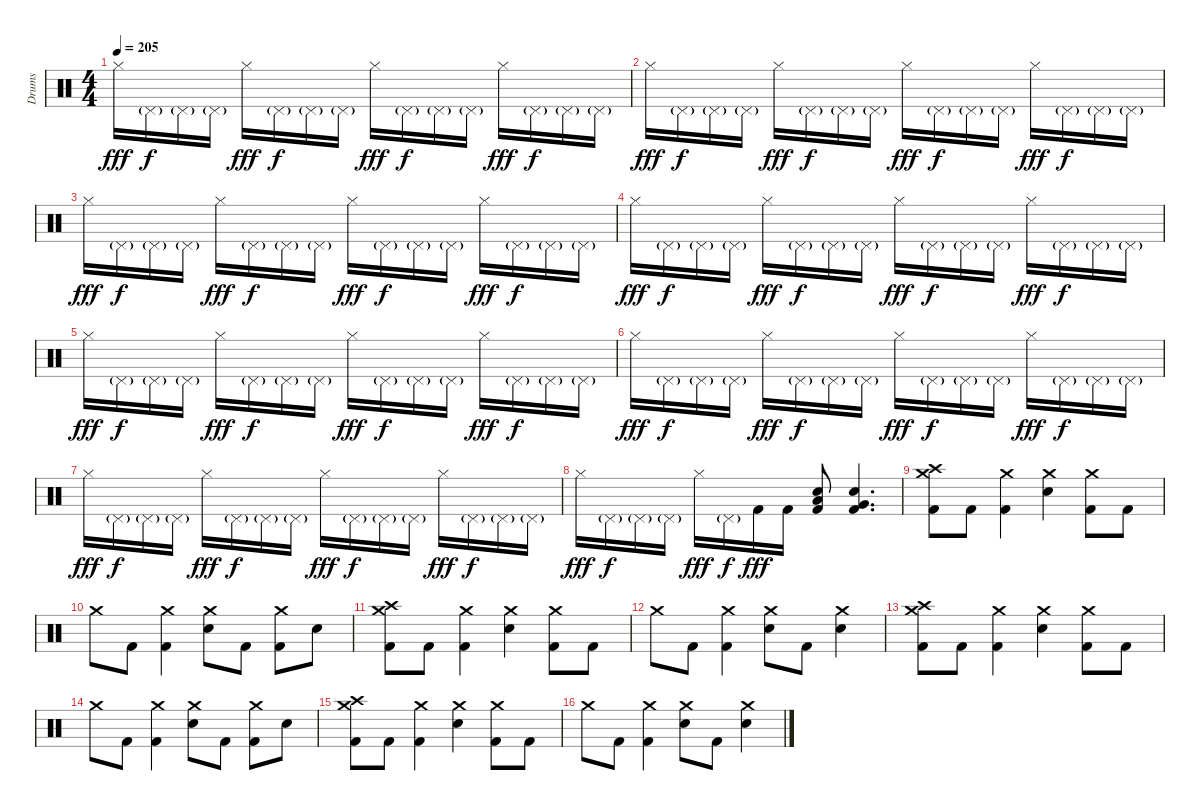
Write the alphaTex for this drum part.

\track ("Drums" "Drums") {instrument percussion}
\staff {score}
\articulation defaults
\ts (4 4)
\tempo 205
\clef neutral
\ks c "Hi-Hat (closed)".16{dy fff} "Pedal Hi-Hat (hit)"{g}.16{dy f} "Pedal Hi-Hat (hit)"{g}.16 "Pedal Hi-Hat (hit)"{g}.16 "Hi-Hat (closed)".16{dy fff} "Pedal Hi-Hat (hit)"{g}.16{dy f} "Pedal Hi-Hat (hit)"{g}.16 "Pedal Hi-Hat (hit)"{g}.16 "Hi-Hat (closed)".16{dy fff} "Pedal Hi-Hat (hit)"{g}.16{dy f} "Pedal Hi-Hat (hit)"{g}.16 "Pedal Hi-Hat (hit)"{g}.16 "Hi-Hat (closed)".16{dy fff} "Pedal Hi-Hat (hit)"{g}.16{dy f} "Pedal Hi-Hat (hit)"{g}.16 "Pedal Hi-Hat (hit)"{g}.16
|
"Hi-Hat (closed)".16{dy fff} "Pedal Hi-Hat (hit)"{g}.16{dy f} "Pedal Hi-Hat (hit)"{g}.16 "Pedal Hi-Hat (hit)"{g}.16 "Hi-Hat (closed)".16{dy fff} "Pedal Hi-Hat (hit)"{g}.16{dy f} "Pedal Hi-Hat (hit)"{g}.16 "Pedal Hi-Hat (hit)"{g}.16 "Hi-Hat (closed)".16{dy fff} "Pedal Hi-Hat (hit)"{g}.16{dy f} "Pedal Hi-Hat (hit)"{g}.16 "Pedal Hi-Hat (hit)"{g}.16 "Hi-Hat (closed)".16{dy fff} "Pedal Hi-Hat (hit)"{g}.16{dy f} "Pedal Hi-Hat (hit)"{g}.16 "Pedal Hi-Hat (hit)"{g}.16 |
"Hi-Hat (closed)".16{dy fff} "Pedal Hi-Hat (hit)"{g}.16{dy f} "Pedal Hi-Hat (hit)"{g}.16 "Pedal Hi-Hat (hit)"{g}.16 "Hi-Hat (closed)".16{dy fff} "Pedal Hi-Hat (hit)"{g}.16{dy f} "Pedal Hi-Hat (hit)"{g}.16 "Pedal Hi-Hat (hit)"{g}.16 "Hi-Hat (closed)".16{dy fff} "Pedal Hi-Hat (hit)"{g}.16{dy f} "Pedal Hi-Hat (hit)"{g}.16 "Pedal Hi-Hat (hit)"{g}.16 "Hi-Hat (closed)".16{dy fff} "Pedal Hi-Hat (hit)"{g}.16{dy f} "Pedal Hi-Hat (hit)"{g}.16 "Pedal Hi-Hat (hit)"{g}.16 |
"Hi-Hat (closed)".16{dy fff} "Pedal Hi-Hat (hit)"{g}.16{dy f} "Pedal Hi-Hat (hit)"{g}.16 "Pedal Hi-Hat (hit)"{g}.16 "Hi-Hat (closed)".16{dy fff} "Pedal Hi-Hat (hit)"{g}.16{dy f} "Pedal Hi-Hat (hit)"{g}.16 "Pedal Hi-Hat (hit)"{g}.16 "Hi-Hat (closed)".16{dy fff} "Pedal Hi-Hat (hit)"{g}.16{dy f} "Pedal Hi-Hat (hit)"{g}.16 "Pedal Hi-Hat (hit)"{g}.16 "Hi-Hat (closed)".16{dy fff} "Pedal Hi-Hat (hit)"{g}.16{dy f} "Pedal Hi-Hat (hit)"{g}.16 "Pedal Hi-Hat (hit)"{g}.16 |
"Hi-Hat (closed)".16{dy fff} "Pedal Hi-Hat (hit)"{g}.16{dy f} "Pedal Hi-Hat (hit)"{g}.16 "Pedal Hi-Hat (hit)"{g}.16 "Hi-Hat (closed)".16{dy fff} "Pedal Hi-Hat (hit)"{g}.16{dy f} "Pedal Hi-Hat (hit)"{g}.16 "Pedal Hi-Hat (hit)"{g}.16 "Hi-Hat (closed)".16{dy fff} "Pedal Hi-Hat (hit)"{g}.16{dy f} "Pedal Hi-Hat (hit)"{g}.16 "Pedal Hi-Hat (hit)"{g}.16 "Hi-Hat (closed)".16{dy fff} "Pedal Hi-Hat (hit)"{g}.16{dy f} "Pedal Hi-Hat (hit)"{g}.16 "Pedal Hi-Hat (hit)"{g}.16 |
"Hi-Hat (closed)".16{dy fff} "Pedal Hi-Hat (hit)"{g}.16{dy f} "Pedal Hi-Hat (hit)"{g}.16 "Pedal Hi-Hat (hit)"{g}.16 "Hi-Hat (closed)".16{dy fff} "Pedal Hi-Hat (hit)"{g}.16{dy f} "Pedal Hi-Hat (hit)"{g}.16 "Pedal Hi-Hat (hit)"{g}.16 "Hi-Hat (closed)".16{dy fff} "Pedal Hi-Hat (hit)"{g}.16{dy f} "Pedal Hi-Hat (hit)"{g}.16 "Pedal Hi-Hat (hit)"{g}.16 "Hi-Hat (closed)".16{dy fff} "Pedal Hi-Hat (hit)"{g}.16{dy f} "Pedal Hi-Hat (hit)"{g}.16 "Pedal Hi-Hat (hit)"{g}.16 |
"Hi-Hat (closed)".16{dy fff} "Pedal Hi-Hat (hit)"{g}.16{dy f} "Pedal Hi-Hat (hit)"{g}.16 "Pedal Hi-Hat (hit)"{g}.16 "Hi-Hat (closed)".16{dy fff} "Pedal Hi-Hat (hit)"{g}.16{dy f} "Pedal Hi-Hat (hit)"{g}.16 "Pedal Hi-Hat (hit)"{g}.16 "Hi-Hat (closed)".16{dy fff} "Pedal Hi-Hat (hit)"{g}.16{dy f} "Pedal Hi-Hat (hit)"{g}.16 "Pedal Hi-Hat (hit)"{g}.16 "Hi-Hat (closed)".16{dy fff} "Pedal Hi-Hat (hit)"{g}.16{dy f} "Pedal Hi-Hat (hit)"{g}.16 "Pedal Hi-Hat (hit)"{g}.16 |
"Hi-Hat (closed)".16{dy fff} "Pedal Hi-Hat (hit)"{g}.16{dy f} "Pedal Hi-Hat (hit)"{g}.16 "Pedal Hi-Hat (hit)"{g}.16 "Hi-Hat (closed)".16{dy fff} "Pedal Hi-Hat (hit)"{g}.16{dy f} "Kick (hit) 2".16{dy fff} "Kick (hit) 2".16 ("Low Tom (hit)" "Electric Snare (hit)" "Kick (hit) 2").8 ("Very Low Tom (hit)" "Electric Snare (hit)" "Kick (hit) 2").4{d} |
("Crash medium (hit)" "Crash high (hit)" "Kick (hit) 2").8 "Kick (hit) 2".8 ("Crash medium (hit)" "Kick (hit) 2").4 ("Crash medium (hit)" "Electric Snare (hit)").4 ("Crash medium (hit)" "Kick (hit) 2").8 "Kick (hit) 2".8 |
"Crash medium (hit)".8 "Kick (hit) 2".8 ("Crash medium (hit)" "Kick (hit) 2").4 ("Crash medium (hit)" "Electric Snare (hit)").8 "Kick (hit) 2".8 ("Crash medium (hit)" "Kick (hit) 2").8 "Electric Snare (hit)".8 |
("Crash medium (hit)" "Crash high (hit)" "Kick (hit) 2").8 "Kick (hit) 2".8 ("Crash medium (hit)" "Kick (hit) 2").4 ("Crash medium (hit)" "Electric Snare (hit)").4 ("Crash medium (hit)" "Kick (hit) 2").8 "Kick (hit) 2".8 |
"Crash medium (hit)".8 "Kick (hit) 2".8 ("Crash medium (hit)" "Kick (hit) 2").4 ("Crash medium (hit)" "Electric Snare (hit)").8 "Kick (hit) 2".8 ("Crash medium (hit)" "Electric Snare (hit)").4 |
("Crash medium (hit)" "Crash high (hit)" "Kick (hit) 2").8 "Kick (hit) 2".8 ("Crash medium (hit)" "Kick (hit) 2").4 ("Crash medium (hit)" "Electric Snare (hit)").4 ("Crash medium (hit)" "Kick (hit) 2").8 "Kick (hit) 2".8 |
"Crash medium (hit)".8 "Kick (hit) 2".8 ("Crash medium (hit)" "Kick (hit) 2").4 ("Crash medium (hit)" "Electric Snare (hit)").8 "Kick (hit) 2".8 ("Crash medium (hit)" "Kick (hit) 2").8 "Electric Snare (hit)".8 |
("Crash medium (hit)" "Crash high (hit)" "Kick (hit) 2").8 "Kick (hit) 2".8 ("Crash medium (hit)" "Kick (hit) 2").4 ("Crash medium (hit)" "Electric Snare (hit)").4 ("Crash medium (hit)" "Kick (hit) 2").8 "Kick (hit) 2".8 |
"Crash medium (hit)".8 "Kick (hit) 2".8 ("Crash medium (hit)" "Kick (hit) 2").4 ("Crash medium (hit)" "Electric Snare (hit)").8 "Kick (hit) 2".8 ("Crash medium (hit)" "Electric Snare (hit)").4
